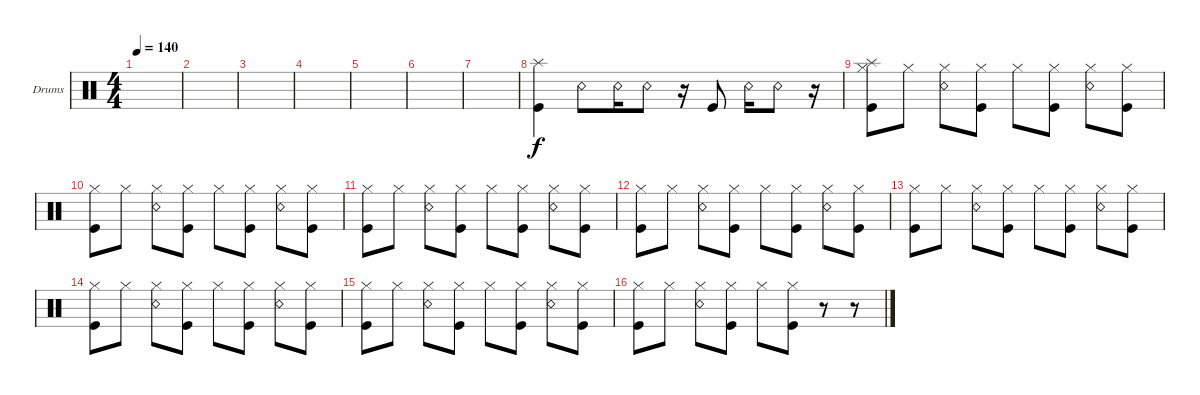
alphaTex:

\defaultSystemsLayout 4
\bracketExtendMode groupsimilarinstruments
\firstSystemTrackNameOrientation horizontal
\otherSystemsTrackNameOrientation horizontal
\track ("Drumkit" "Drums") {instrument percussion}
\staff {score}
\articulation defaults
\ts (4 4)
\tempo 140
\clef neutral
\scale
0.472222
\ks c
|
\scale
0.263889 |
\scale
0.263889 |
\scale
0.333333 |
\scale
0.333333 |
\scale
0.333333 |
\scale
0.333333 |
\scale
0.333333 ("Splash (hit)" "Kick (hit)").4 "Snare (rim shot)".8 "Snare (rim shot)".16 "Snare (rim shot)".8 r.16 "Kick (hit)".8 "Snare (rim shot)".16 "Snare (rim shot)".8 r.16 |
\scale
0.333333 ("Kick (hit)" "Hi-Hat (closed)" "Splash (hit)").8 "Hi-Hat (closed)".8 ("Hi-Hat (closed)" "Snare (rim shot)").8 ("Hi-Hat (closed)" "Kick (hit)").8 "Hi-Hat (closed)".8 ("Hi-Hat (closed)" "Kick (hit)").8 ("Hi-Hat (closed)" "Snare (rim shot)").8 ("Hi-Hat (closed)" "Kick (hit)").8 |
\scale
0.333333 ("Kick (hit)" "Hi-Hat (closed)").8 "Hi-Hat (closed)".8 ("Hi-Hat (closed)" "Snare (rim shot)").8 ("Hi-Hat (closed)" "Kick (hit)").8 "Hi-Hat (closed)".8 ("Hi-Hat (closed)" "Kick (hit)").8 ("Hi-Hat (closed)" "Snare (rim shot)").8 ("Hi-Hat (closed)" "Kick (hit)").8 |
\scale
0.333333 ("Kick (hit)" "Hi-Hat (closed)").8 "Hi-Hat (closed)".8 ("Hi-Hat (closed)" "Snare (rim shot)").8 ("Hi-Hat (closed)" "Kick (hit)").8 "Hi-Hat (closed)".8 ("Hi-Hat (closed)" "Kick (hit)").8 ("Hi-Hat (closed)" "Snare (rim shot)").8 ("Hi-Hat (closed)" "Kick (hit)").8 |
\scale
0.333333 ("Kick (hit)" "Hi-Hat (closed)").8 "Hi-Hat (closed)".8 ("Hi-Hat (closed)" "Snare (rim shot)").8 ("Hi-Hat (closed)" "Kick (hit)").8 "Hi-Hat (closed)".8 ("Hi-Hat (closed)" "Kick (hit)").8 ("Hi-Hat (closed)" "Snare (rim shot)").8 ("Hi-Hat (closed)" "Kick (hit)").8 |
\scale
0.333333 ("Kick (hit)" "Hi-Hat (closed)").8 "Hi-Hat (closed)".8 ("Hi-Hat (closed)" "Snare (rim shot)").8 ("Hi-Hat (closed)" "Kick (hit)").8 "Hi-Hat (closed)".8 ("Hi-Hat (closed)" "Kick (hit)").8 ("Hi-Hat (closed)" "Snare (rim shot)").8 ("Hi-Hat (closed)" "Kick (hit)").8 |
\scale
0.333333 ("Kick (hit)" "Hi-Hat (closed)").8 "Hi-Hat (closed)".8 ("Hi-Hat (closed)" "Snare (rim shot)").8 ("Hi-Hat (closed)" "Kick (hit)").8 "Hi-Hat (closed)".8 ("Hi-Hat (closed)" "Kick (hit)").8 ("Hi-Hat (closed)" "Snare (rim shot)").8 ("Hi-Hat (closed)" "Kick (hit)").8 |
\scale
0.333333 ("Kick (hit)" "Hi-Hat (closed)").8 "Hi-Hat (closed)".8 ("Hi-Hat (closed)" "Snare (rim shot)").8 ("Hi-Hat (closed)" "Kick (hit)").8 "Hi-Hat (closed)".8 ("Hi-Hat (closed)" "Kick (hit)").8 ("Hi-Hat (closed)" "Snare (rim shot)").8 ("Hi-Hat (closed)" "Kick (hit)").8 |
("Kick (hit)" "Hi-Hat (closed)").8 "Hi-Hat (closed)".8 ("Hi-Hat (closed)" "Snare (rim shot)").8 ("Hi-Hat (closed)" "Kick (hit)").8 "Hi-Hat (closed)".8 ("Hi-Hat (closed)" "Kick (hit)").8 r.8 r.8
